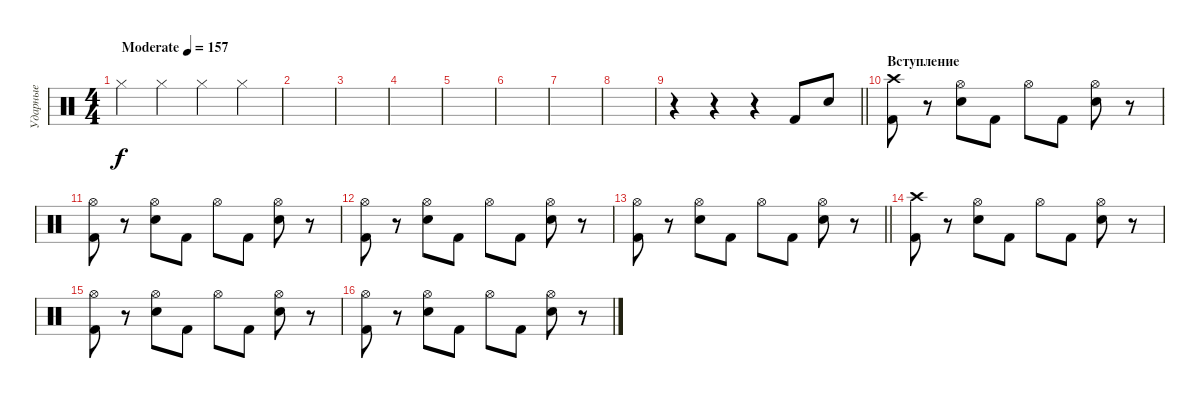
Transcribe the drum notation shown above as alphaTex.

\track ("Ударные" "Ударные") {instrument percussion}
\staff {score}
\articulation defaults
\ts (4 4)
\tempo (157 "Moderate")
\clef neutral
\ks c "Hi-Hat (closed)".4{dy f} "Hi-Hat (closed)".4 "Hi-Hat (closed)".4 "Hi-Hat (closed)".4
|
|
|
|
|
|
|
|
\barLineRight lightlight
r.4 r.4 r.4 "Kick (hit) 2".8 "Snare (hit) 2".8 |
\section ("" "Вступление")
("Crash high (hit)" "Kick (hit) 2").8 r.8 ("Hi-Hat (open)" "Snare (hit) 2").8 "Kick (hit) 2".8 "Hi-Hat (open)".8 "Kick (hit) 2".8 ("Hi-Hat (open)" "Snare (hit) 2").8 r.8 |
("Hi-Hat (open)" "Kick (hit) 2").8 r.8 ("Hi-Hat (open)" "Snare (hit) 2").8 "Kick (hit) 2".8 "Hi-Hat (open)".8 "Kick (hit) 2".8 ("Hi-Hat (open)" "Snare (hit) 2").8 r.8 |
("Hi-Hat (open)" "Kick (hit) 2").8 r.8 ("Hi-Hat (open)" "Snare (hit) 2").8 "Kick (hit) 2".8 "Hi-Hat (open)".8 "Kick (hit) 2".8 ("Hi-Hat (open)" "Snare (hit) 2").8 r.8 |
\barLineRight lightlight
("Hi-Hat (open)" "Kick (hit) 2").8 r.8 ("Hi-Hat (open)" "Snare (hit) 2").8 "Kick (hit) 2".8 "Hi-Hat (open)".8 "Kick (hit) 2".8 ("Hi-Hat (open)" "Snare (hit) 2").8 r.8 |
("Crash high (hit)" "Kick (hit) 2").8 r.8 ("Hi-Hat (open)" "Snare (hit) 2").8 "Kick (hit) 2".8 "Hi-Hat (open)".8 "Kick (hit) 2".8 ("Hi-Hat (open)" "Snare (hit) 2").8 r.8 |
("Hi-Hat (open)" "Kick (hit) 2").8 r.8 ("Hi-Hat (open)" "Snare (hit) 2").8 "Kick (hit) 2".8 "Hi-Hat (open)".8 "Kick (hit) 2".8 ("Hi-Hat (open)" "Snare (hit) 2").8 r.8 |
("Hi-Hat (open)" "Kick (hit) 2").8 r.8 ("Hi-Hat (open)" "Snare (hit) 2").8 "Kick (hit) 2".8 "Hi-Hat (open)".8 "Kick (hit) 2".8 ("Hi-Hat (open)" "Snare (hit) 2").8 r.8
